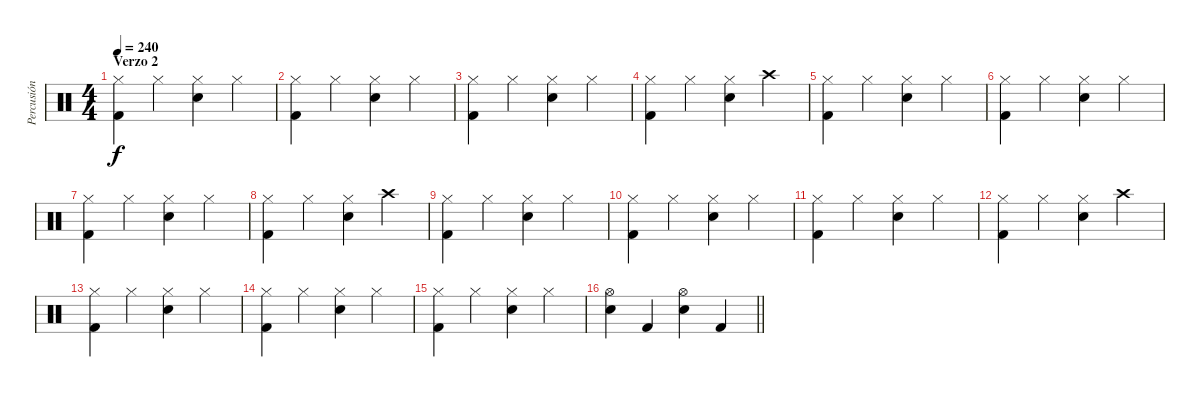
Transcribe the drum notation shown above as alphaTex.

\track ("Percusión" "Percusión") {instrument percussion}
\staff {score}
\articulation defaults
\ts (4 4)
\section ("" "Verzo 2")
\tempo 240
\clef neutral
\ks c
("Hi-Hat (closed)" "Kick (hit) 2").4{dy f} "Hi-Hat (closed)".4 ("Hi-Hat (closed)" "Electric Snare (hit)").4 "Hi-Hat (closed)".4 |
("Hi-Hat (closed)" "Kick (hit) 2").4 "Hi-Hat (closed)".4 ("Hi-Hat (closed)" "Electric Snare (hit)").4 "Hi-Hat (closed)".4 |
("Hi-Hat (closed)" "Kick (hit) 2").4 "Hi-Hat (closed)".4 ("Hi-Hat (closed)" "Electric Snare (hit)").4 "Hi-Hat (closed)".4 |
("Hi-Hat (closed)" "Kick (hit) 2").4 "Hi-Hat (closed)".4 ("Hi-Hat (closed)" "Electric Snare (hit)").4 "Crash high (hit)".4 |
("Hi-Hat (closed)" "Kick (hit) 2").4 "Hi-Hat (closed)".4 ("Hi-Hat (closed)" "Electric Snare (hit)").4 "Hi-Hat (closed)".4 |
("Hi-Hat (closed)" "Kick (hit) 2").4 "Hi-Hat (closed)".4 ("Hi-Hat (closed)" "Electric Snare (hit)").4 "Hi-Hat (closed)".4 |
("Hi-Hat (closed)" "Kick (hit) 2").4 "Hi-Hat (closed)".4 ("Hi-Hat (closed)" "Electric Snare (hit)").4 "Hi-Hat (closed)".4 |
("Hi-Hat (closed)" "Kick (hit) 2").4 "Hi-Hat (closed)".4 ("Hi-Hat (closed)" "Electric Snare (hit)").4 "Crash high (hit)".4 |
("Hi-Hat (closed)" "Kick (hit) 2").4 "Hi-Hat (closed)".4 ("Hi-Hat (closed)" "Electric Snare (hit)").4 "Hi-Hat (closed)".4 |
("Hi-Hat (closed)" "Kick (hit) 2").4 "Hi-Hat (closed)".4 ("Hi-Hat (closed)" "Electric Snare (hit)").4 "Hi-Hat (closed)".4 |
("Hi-Hat (closed)" "Kick (hit) 2").4 "Hi-Hat (closed)".4 ("Hi-Hat (closed)" "Electric Snare (hit)").4 "Hi-Hat (closed)".4 |
("Hi-Hat (closed)" "Kick (hit) 2").4 "Hi-Hat (closed)".4 ("Hi-Hat (closed)" "Electric Snare (hit)").4 "Crash high (hit)".4 |
("Hi-Hat (closed)" "Kick (hit) 2").4 "Hi-Hat (closed)".4 ("Hi-Hat (closed)" "Electric Snare (hit)").4 "Hi-Hat (closed)".4 |
("Hi-Hat (closed)" "Kick (hit) 2").4 "Hi-Hat (closed)".4 ("Hi-Hat (closed)" "Electric Snare (hit)").4 "Hi-Hat (closed)".4 |
("Hi-Hat (closed)" "Kick (hit) 2").4 "Hi-Hat (closed)".4 ("Hi-Hat (closed)" "Electric Snare (hit)").4 "Hi-Hat (closed)".4 |
\barLineRight lightlight
("Hi-Hat (open)" "Electric Snare (hit)").4 "Kick (hit) 2".4 ("Hi-Hat (open)" "Electric Snare (hit)").4 "Kick (hit) 2".4
